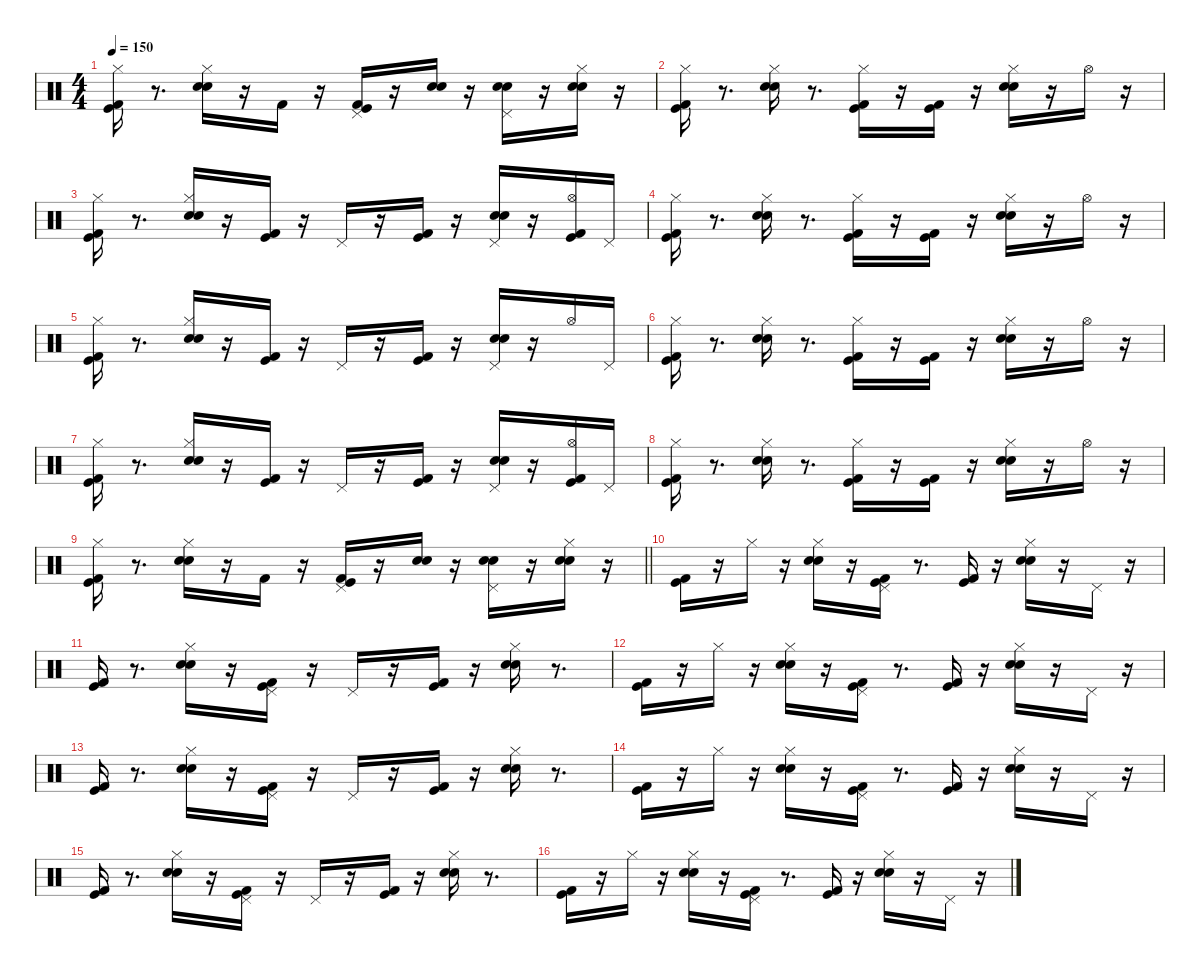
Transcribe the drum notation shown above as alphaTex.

\defaultSystemsLayout 4
\hideDynamics
\bracketExtendMode nobrackets
\singleTrackTrackNamePolicy hidden
\multiTrackTrackNamePolicy hidden
\firstSystemTrackNameMode fullname
\firstSystemTrackNameOrientation horizontal
\otherSystemsTrackNameOrientation horizontal
\track ("Track 8" "drm.") {instrument percussion}
\staff {score}
\articulation defaults
\ts (4 4)
\tempo 150
\clef neutral
\ks c
("Hi-Hat (closed)" "Kick (hit) 2" "Kick (hit)").16{dy fff beam Down} r.8{d beam Down} ("Hi-Hat (closed)" "Snare (hit) 2" "Snare (hit) 2").16{beam Down} r.16{beam Down} "Kick (hit) 2".16{beam Down} r.16{beam Down} ("Pedal Hi-Hat (hit)" "Kick (hit) 2" "Kick (hit)").16{beam Up} r.16{beam Up} ("Snare (hit) 2" "Snare (hit) 2").16{dy f beam Up} r.16{beam Up} ("Pedal Hi-Hat (hit)" "Snare (hit) 2" "Snare (hit) 2").16{dy fff beam Down} r.16{beam Down} ("Snare (hit) 2" "Snare (hit) 2" "Hi-Hat (closed)").16{dy f beam Down} r.16{beam Down} |
("Kick (hit) 2" "Hi-Hat (closed)" "Kick (hit)").16{dy fff beam Down} r.8{d beam Down} ("Snare (hit) 2" "Snare (hit) 2" "Hi-Hat (closed)").16{beam Down} r.8{d beam Down} ("Kick (hit) 2" "Kick (hit)" "Hi-Hat (closed)").16{beam Down} r.16{beam Down} ("Kick (hit) 2" "Kick (hit)").16{beam Down} r.16{beam Down} ("Snare (hit) 2" "Snare (hit) 2" "Hi-Hat (closed)").16{beam Down} r.16{beam Down} "Hi-Hat (open)".16{beam Down} r.16{beam Down} |
("Kick (hit) 2" "Kick (hit)" "Hi-Hat (closed)").16{beam Down} r.8{d beam Down} ("Snare (hit) 2" "Snare (hit) 2" "Hi-Hat (closed)").16{beam Up} r.16{beam Up} ("Kick (hit) 2" "Kick (hit)").16{beam Up} r.16{beam Up} "Pedal Hi-Hat (hit)".16{beam Up} r.16{beam Up} ("Kick (hit) 2" "Kick (hit)").16{beam Up} r.16{beam Up} ("Snare (hit) 2" "Snare (hit) 2" "Pedal Hi-Hat (hit)").16{beam Up} r.16{beam Up} ("Kick (hit) 2" "Kick (hit)" "Hi-Hat (open)").16{beam Up} "Pedal Hi-Hat (hit)".16{beam Up} |
("Kick (hit)" "Kick (hit) 2" "Hi-Hat (closed)").16{beam Down} r.8{d beam Down} ("Snare (hit) 2" "Snare (hit) 2" "Hi-Hat (closed)").16{beam Down} r.8{d beam Down} ("Kick (hit)" "Kick (hit) 2" "Hi-Hat (closed)").16{beam Down} r.16{beam Down} ("Kick (hit)" "Kick (hit) 2").16{beam Down} r.16{beam Down} ("Snare (hit) 2" "Snare (hit) 2" "Hi-Hat (closed)").16{beam Down} r.16{beam Down} "Hi-Hat (open)".16{beam Down} r.16{beam Down} |
("Kick (hit)" "Kick (hit) 2" "Hi-Hat (closed)").16{beam Down} r.8{d beam Down} ("Snare (hit) 2" "Snare (hit) 2" "Hi-Hat (closed)").16{beam Up} r.16{beam Up} ("Kick (hit)" "Kick (hit) 2").16{beam Up} r.16{beam Up} "Pedal Hi-Hat (hit)".16{beam Up} r.16{beam Up} ("Kick (hit)" "Kick (hit) 2").16{beam Up} r.16{beam Up} ("Snare (hit) 2" "Snare (hit) 2" "Pedal Hi-Hat (hit)").16{beam Up} r.16{beam Up} "Hi-Hat (open)".16{beam Up} "Pedal Hi-Hat (hit)".16{beam Up} |
("Hi-Hat (closed)" "Kick (hit)" "Kick (hit) 2").16{beam Down} r.8{d beam Down} ("Hi-Hat (closed)" "Snare (hit) 2" "Snare (hit) 2").16{beam Down} r.8{d beam Down} ("Hi-Hat (closed)" "Kick (hit)" "Kick (hit) 2").16{beam Down} r.16{beam Down} ("Kick (hit)" "Kick (hit) 2").16{beam Down} r.16{beam Down} ("Hi-Hat (closed)" "Snare (hit) 2" "Snare (hit) 2").16{beam Down} r.16{beam Down} "Hi-Hat (open)".16{beam Down} r.16{beam Down} |
("Hi-Hat (closed)" "Kick (hit)" "Kick (hit) 2").16{beam Down} r.8{d beam Down} ("Hi-Hat (closed)" "Snare (hit) 2" "Snare (hit) 2").16{beam Up} r.16{beam Up} ("Kick (hit)" "Kick (hit) 2").16{beam Up} r.16{beam Up} "Pedal Hi-Hat (hit)".16{beam Up} r.16{beam Up} ("Kick (hit)" "Kick (hit) 2").16{beam Up} r.16{beam Up} ("Pedal Hi-Hat (hit)" "Snare (hit) 2" "Snare (hit) 2").16{beam Up} r.16{beam Up} ("Hi-Hat (open)" "Kick (hit)" "Kick (hit) 2").16{beam Up} "Pedal Hi-Hat (hit)".16{beam Up} |
("Hi-Hat (closed)" "Kick (hit) 2" "Kick (hit)").16{beam Down} r.8{d beam Down} ("Hi-Hat (closed)" "Snare (hit) 2" "Snare (hit) 2").16{beam Down} r.8{d beam Down} ("Hi-Hat (closed)" "Kick (hit) 2" "Kick (hit)").16{beam Down} r.16{beam Down} ("Kick (hit) 2" "Kick (hit)").16{beam Down} r.16{beam Down} ("Hi-Hat (closed)" "Snare (hit) 2" "Snare (hit) 2").16{beam Down} r.16{beam Down} "Hi-Hat (open)".16{beam Down} r.16{beam Down} |
\barLineRight lightlight
("Hi-Hat (closed)" "Kick (hit) 2" "Kick (hit)").16{beam Down} r.8{d beam Down} ("Hi-Hat (closed)" "Snare (hit) 2" "Snare (hit) 2").16{beam Down} r.16{beam Down} "Kick (hit) 2".16{beam Down} r.16{beam Down} ("Pedal Hi-Hat (hit)" "Kick (hit) 2" "Kick (hit)").16{beam Up} r.16{beam Up} ("Snare (hit) 2" "Snare (hit) 2").16{dy f beam Up} r.16{beam Up} ("Pedal Hi-Hat (hit)" "Snare (hit) 2" "Snare (hit) 2").16{dy fff beam Down} r.16{beam Down} ("Snare (hit) 2" "Snare (hit) 2" "Hi-Hat (closed)").16{dy f beam Down} r.16{beam Down} |
("Kick (hit)" "Kick (hit) 2").16{dy fff beam Down} r.16{beam Down} "Hi-Hat (closed)".16{beam Down} r.16{beam Down} ("Hi-Hat (closed)" "Snare (hit) 2" "Snare (hit) 2").16{beam Down} r.16{beam Down} ("Pedal Hi-Hat (hit)" "Kick (hit)" "Kick (hit) 2").16{beam Down} r.8{d beam Down} ("Kick (hit)" "Kick (hit) 2").16{beam Up} r.16{beam Up} ("Hi-Hat (closed)" "Snare (hit) 2" "Snare (hit) 2").16{beam Down} r.16{beam Down} "Pedal Hi-Hat (hit)".16{beam Down} r.16{beam Down} |
("Kick (hit)" "Kick (hit) 2").16{beam Up} r.8{d beam Up} ("Hi-Hat (closed)" "Snare (hit) 2" "Snare (hit) 2").16{beam Down} r.16{beam Down} ("Pedal Hi-Hat (hit)" "Kick (hit)" "Kick (hit) 2").16{beam Down} r.16{beam Down} "Pedal Hi-Hat (hit)".16{beam Up} r.16{beam Up} ("Kick (hit)" "Kick (hit) 2").16{beam Up} r.16{beam Up} ("Hi-Hat (closed)" "Snare (hit) 2" "Snare (hit) 2").16{beam Down} r.8{d beam Down} |
("Kick (hit)" "Kick (hit) 2").16{beam Down} r.16{beam Down} "Hi-Hat (closed)".16{beam Down} r.16{beam Down} ("Hi-Hat (closed)" "Snare (hit) 2" "Snare (hit) 2").16{beam Down} r.16{beam Down} ("Pedal Hi-Hat (hit)" "Kick (hit)" "Kick (hit) 2").16{beam Down} r.8{d beam Down} ("Kick (hit)" "Kick (hit) 2").16{beam Up} r.16{beam Up} ("Hi-Hat (closed)" "Snare (hit) 2" "Snare (hit) 2").16{beam Down} r.16{beam Down} "Pedal Hi-Hat (hit)".16{beam Down} r.16{beam Down} |
("Kick (hit)" "Kick (hit) 2").16{beam Up} r.8{d beam Up} ("Hi-Hat (closed)" "Snare (hit) 2" "Snare (hit) 2").16{beam Down} r.16{beam Down} ("Pedal Hi-Hat (hit)" "Kick (hit)" "Kick (hit) 2").16{beam Down} r.16{beam Down} "Pedal Hi-Hat (hit)".16{beam Up} r.16{beam Up} ("Kick (hit)" "Kick (hit) 2").16{beam Up} r.16{beam Up} ("Hi-Hat (closed)" "Snare (hit) 2" "Snare (hit) 2").16{beam Down} r.8{d beam Down} |
("Kick (hit)" "Kick (hit) 2").16{beam Down} r.16{beam Down} "Hi-Hat (closed)".16{beam Down} r.16{beam Down} ("Hi-Hat (closed)" "Snare (hit) 2" "Snare (hit) 2").16{beam Down} r.16{beam Down} ("Pedal Hi-Hat (hit)" "Kick (hit)" "Kick (hit) 2").16{beam Down} r.8{d beam Down} ("Kick (hit)" "Kick (hit) 2").16{beam Up} r.16{beam Up} ("Hi-Hat (closed)" "Snare (hit) 2" "Snare (hit) 2").16{beam Down} r.16{beam Down} "Pedal Hi-Hat (hit)".16{beam Down} r.16{beam Down} |
("Kick (hit)" "Kick (hit) 2").16{beam Up} r.8{d beam Up} ("Hi-Hat (closed)" "Snare (hit) 2" "Snare (hit) 2").16{beam Down} r.16{beam Down} ("Pedal Hi-Hat (hit)" "Kick (hit)" "Kick (hit) 2").16{beam Down} r.16{beam Down} "Pedal Hi-Hat (hit)".16{beam Up} r.16{beam Up} ("Kick (hit)" "Kick (hit) 2").16{beam Up} r.16{beam Up} ("Hi-Hat (closed)" "Snare (hit) 2" "Snare (hit) 2").16{beam Down} r.8{d beam Down} |
("Kick (hit)" "Kick (hit) 2").16{beam Down} r.16{beam Down} "Hi-Hat (closed)".16{beam Down} r.16{beam Down} ("Hi-Hat (closed)" "Snare (hit) 2" "Snare (hit) 2").16{beam Down} r.16{beam Down} ("Pedal Hi-Hat (hit)" "Kick (hit)" "Kick (hit) 2").16{beam Down} r.8{d beam Down} ("Kick (hit)" "Kick (hit) 2").16{beam Up} r.16{beam Up} ("Hi-Hat (closed)" "Snare (hit) 2" "Snare (hit) 2").16{beam Down} r.16{beam Down} "Pedal Hi-Hat (hit)".16{beam Down} r.16{beam Down}
